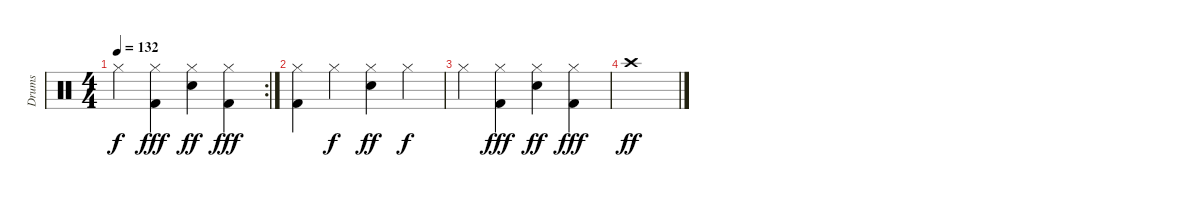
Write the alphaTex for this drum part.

\track ("Drums" "Drums") {instrument percussion}
\staff {score}
\articulation defaults
\rc 2
\ts (4 4)
\tempo 132
\clef neutral
\ks c "Hi-Hat (closed)".4{dy f}
("Hi-Hat (closed)" "Kick (hit) 2").4{dy fff} ("Hi-Hat (closed)" "Electric Snare (hit)").4{dy ff} ("Hi-Hat (closed)" "Kick (hit) 2").4{dy fff} |
("Hi-Hat (closed)" "Kick (hit) 2").4 "Hi-Hat (closed)".4{dy f} ("Hi-Hat (closed)" "Electric Snare (hit)").4{dy ff} "Hi-Hat (closed)".4{dy f} |
"Hi-Hat (closed)".4 ("Hi-Hat (closed)" "Kick (hit) 2").4{dy fff} ("Hi-Hat (closed)" "Electric Snare (hit)").4{dy ff} ("Hi-Hat (closed)" "Kick (hit) 2").4{dy fff} |
"Crash high (hit)".1{dy ff}
